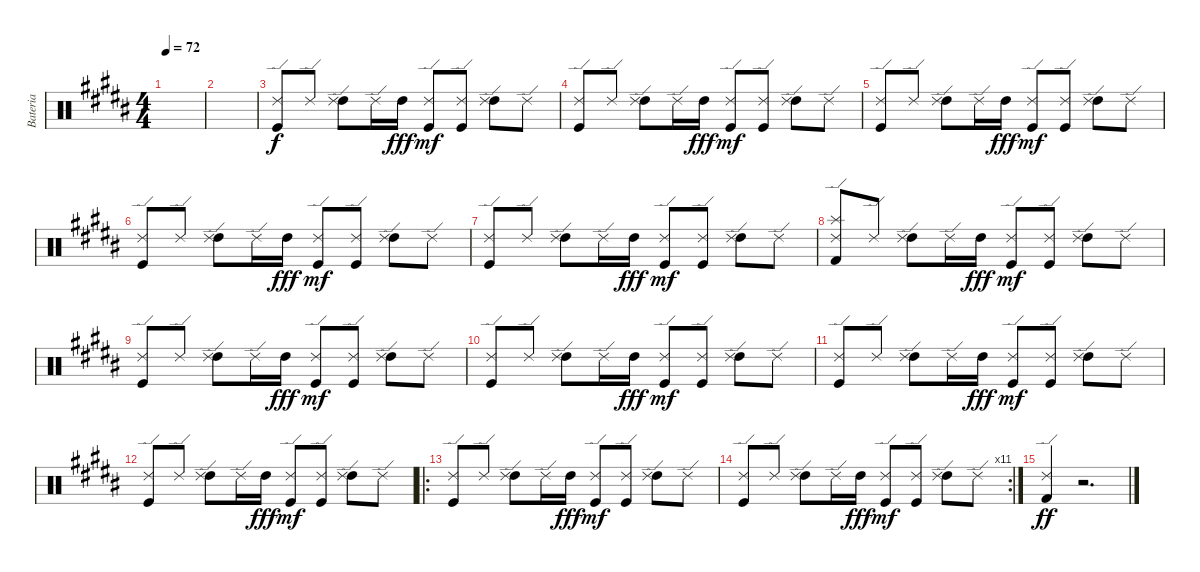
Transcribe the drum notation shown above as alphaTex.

\track ("Bateria" "Bateria") {instrument percussion}
\staff {score}
\articulation defaults
\ts (4 4)
\tempo 72
\clef neutral
\ks b
|
|
("Kick (hit)" "Ride (edge) 2").8 "Ride (edge) 2".8 ("High Tom (hit)" "Ride (edge) 2").8 "Ride (edge) 2".16 "High Tom (hit)".16{dy fff} ("Kick (hit)" "Ride (edge) 2").8{dy mf} ("Kick (hit)" "Ride (edge) 2").8 ("High Tom (hit)" "Ride (edge) 2").8 "Ride (edge) 2".8 |
("Kick (hit)" "Ride (edge) 2").8 "Ride (edge) 2".8 ("High Tom (hit)" "Ride (edge) 2").8 "Ride (edge) 2".16 "High Tom (hit)".16{dy fff} ("Kick (hit)" "Ride (edge) 2").8{dy mf} ("Kick (hit)" "Ride (edge) 2").8 ("High Tom (hit)" "Ride (edge) 2").8 "Ride (edge) 2".8 |
("Kick (hit)" "Ride (edge) 2").8 "Ride (edge) 2".8 ("High Tom (hit)" "Ride (edge) 2").8 "Ride (edge) 2".16 "High Tom (hit)".16{dy fff} ("Kick (hit)" "Ride (edge) 2").8{dy mf} ("Kick (hit)" "Ride (edge) 2").8 ("High Tom (hit)" "Ride (edge) 2").8 "Ride (edge) 2".8 |
("Kick (hit)" "Ride (edge) 2").8 "Ride (edge) 2".8 ("High Tom (hit)" "Ride (edge) 2").8 "Ride (edge) 2".16 "High Tom (hit)".16{dy fff} ("Kick (hit)" "Ride (edge) 2").8{dy mf} ("Kick (hit)" "Ride (edge) 2").8 ("High Tom (hit)" "Ride (edge) 2").8 "Ride (edge) 2".8 |
("Kick (hit)" "Ride (edge) 2").8 "Ride (edge) 2".8 ("High Tom (hit)" "Ride (edge) 2").8 "Ride (edge) 2".16 "High Tom (hit)".16{dy fff} ("Kick (hit)" "Ride (edge) 2").8{dy mf} ("Kick (hit)" "Ride (edge) 2").8 ("High Tom (hit)" "Ride (edge) 2").8 "Ride (edge) 2".8 |
("Splash (hit)" "Ride (edge) 2" "Kick (hit) 2").8 "Ride (edge) 2".8 ("High Tom (hit)" "Ride (edge) 2").8 "Ride (edge) 2".16 "High Tom (hit)".16{dy fff} ("Kick (hit)" "Ride (edge) 2").8{dy mf} ("Kick (hit)" "Ride (edge) 2").8 ("High Tom (hit)" "Ride (edge) 2").8 "Ride (edge) 2".8 |
("Kick (hit)" "Ride (edge) 2").8 "Ride (edge) 2".8 ("High Tom (hit)" "Ride (edge) 2").8 "Ride (edge) 2".16 "High Tom (hit)".16{dy fff} ("Kick (hit)" "Ride (edge) 2").8{dy mf} ("Kick (hit)" "Ride (edge) 2").8 ("High Tom (hit)" "Ride (edge) 2").8 "Ride (edge) 2".8 |
("Kick (hit)" "Ride (edge) 2").8 "Ride (edge) 2".8 ("High Tom (hit)" "Ride (edge) 2").8 "Ride (edge) 2".16 "High Tom (hit)".16{dy fff} ("Kick (hit)" "Ride (edge) 2").8{dy mf} ("Kick (hit)" "Ride (edge) 2").8 ("High Tom (hit)" "Ride (edge) 2").8 "Ride (edge) 2".8 |
("Kick (hit)" "Ride (edge) 2").8 "Ride (edge) 2".8 ("High Tom (hit)" "Ride (edge) 2").8 "Ride (edge) 2".16 "High Tom (hit)".16{dy fff} ("Kick (hit)" "Ride (edge) 2").8{dy mf} ("Kick (hit)" "Ride (edge) 2").8 ("High Tom (hit)" "Ride (edge) 2").8 "Ride (edge) 2".8 |
("Kick (hit)" "Ride (edge) 2").8 "Ride (edge) 2".8 ("High Tom (hit)" "Ride (edge) 2").8 "Ride (edge) 2".16 "High Tom (hit)".16{dy fff} ("Kick (hit)" "Ride (edge) 2").8{dy mf} ("Kick (hit)" "Ride (edge) 2").8 ("High Tom (hit)" "Ride (edge) 2").8 "Ride (edge) 2".8 |
\ro
("Kick (hit)" "Ride (edge) 2").8 "Ride (edge) 2".8 ("High Tom (hit)" "Ride (edge) 2").8 "Ride (edge) 2".16 "High Tom (hit)".16{dy fff} ("Kick (hit)" "Ride (edge) 2").8{dy mf} ("Kick (hit)" "Ride (edge) 2").8 ("High Tom (hit)" "Ride (edge) 2").8 "Ride (edge) 2".8 |
\rc 11
("Kick (hit)" "Ride (edge) 2").8 "Ride (edge) 2".8 ("High Tom (hit)" "Ride (edge) 2").8 "Ride (edge) 2".16 "High Tom (hit)".16{dy fff} ("Kick (hit)" "Ride (edge) 2").8{dy mf} ("Kick (hit)" "Ride (edge) 2").8 ("High Tom (hit)" "Ride (edge) 2").8 "Ride (edge) 2".8 |
("Kick (hit) 2" "Ride (edge) 2").4{dy ff} r.2{d}
